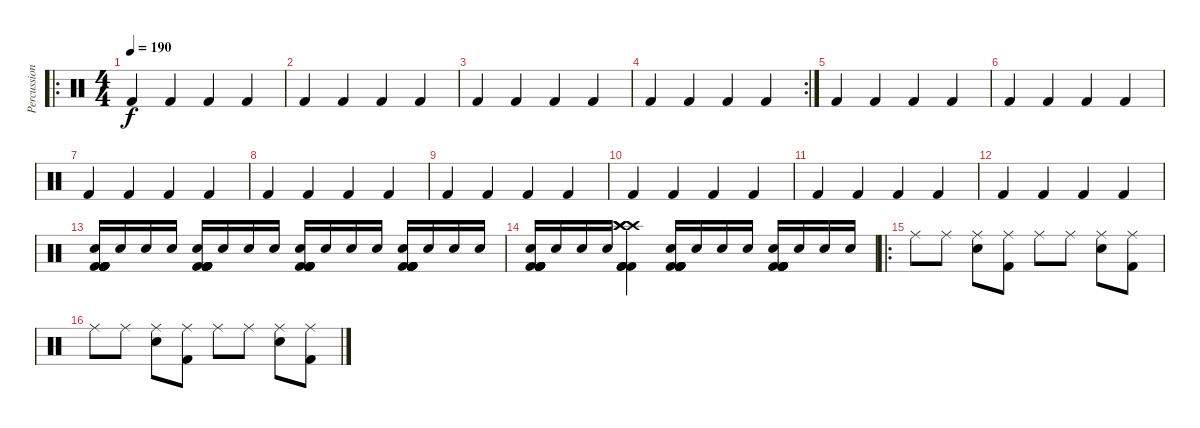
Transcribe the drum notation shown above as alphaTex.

\track ("Percussion" "Percussion") {instrument percussion}
\staff {score}
\articulation defaults
\ro
\ts (4 4)
\tempo 190
\clef neutral
\ks c "Kick (hit) 2".4{dy f} "Kick (hit) 2".4 "Kick (hit) 2".4 "Kick (hit) 2".4
|
"Kick (hit) 2".4 "Kick (hit) 2".4 "Kick (hit) 2".4 "Kick (hit) 2".4 |
"Kick (hit) 2".4 "Kick (hit) 2".4 "Kick (hit) 2".4 "Kick (hit) 2".4 |
\rc 2 "Kick (hit) 2".4 "Kick (hit) 2".4 "Kick (hit) 2".4 "Kick (hit) 2".4
|
"Kick (hit) 2".4 "Kick (hit) 2".4 "Kick (hit) 2".4 "Kick (hit) 2".4 |
"Kick (hit) 2".4 "Kick (hit) 2".4 "Kick (hit) 2".4 "Kick (hit) 2".4 |
"Kick (hit) 2".4 "Kick (hit) 2".4 "Kick (hit) 2".4 "Kick (hit) 2".4 |
"Kick (hit) 2".4 "Kick (hit) 2".4 "Kick (hit) 2".4 "Kick (hit) 2".4 |
"Kick (hit) 2".4 "Kick (hit) 2".4 "Kick (hit) 2".4 "Kick (hit) 2".4 |
"Kick (hit) 2".4 "Kick (hit) 2".4 "Kick (hit) 2".4 "Kick (hit) 2".4 |
"Kick (hit) 2".4 "Kick (hit) 2".4 "Kick (hit) 2".4 "Kick (hit) 2".4 |
"Kick (hit) 2".4 "Kick (hit) 2".4 "Kick (hit) 2".4 "Kick (hit) 2".4 |
("Snare (hit) 2" "Kick (hit) 2" "Kick (hit) 2" "Kick (hit) 2" "Kick (hit) 2" "Kick (hit) 2").16 "Snare (hit) 2".16 "Snare (hit) 2".16 "Snare (hit) 2".16 ("Snare (hit) 2" "Kick (hit) 2" "Kick (hit) 2" "Kick (hit) 2" "Kick (hit) 2" "Kick (hit) 2").16 "Snare (hit) 2".16 "Snare (hit) 2".16 "Snare (hit) 2".16 ("Snare (hit) 2" "Kick (hit) 2" "Kick (hit) 2" "Kick (hit) 2" "Kick (hit) 2" "Kick (hit) 2").16 "Snare (hit) 2".16 "Snare (hit) 2".16 "Snare (hit) 2".16 ("Snare (hit) 2" "Kick (hit) 2" "Kick (hit) 2" "Kick (hit) 2" "Kick (hit) 2" "Kick (hit) 2").16 "Snare (hit) 2".16 "Snare (hit) 2".16 "Snare (hit) 2".16 |
("Snare (hit) 2" "Kick (hit) 2" "Kick (hit) 2" "Kick (hit) 2" "Kick (hit) 2" "Kick (hit) 2").16 "Snare (hit) 2".16 "Snare (hit) 2".16 "Snare (hit) 2".16 ("Crash high (hit)" "Crash high (hit)" "Crash high (hit)" "Kick (hit) 2" "Kick (hit) 2" "Kick (hit) 2").4 ("Snare (hit) 2" "Kick (hit) 2" "Kick (hit) 2" "Kick (hit) 2" "Kick (hit) 2" "Kick (hit) 2").16 "Snare (hit) 2".16 "Snare (hit) 2".16 "Snare (hit) 2".16 ("Snare (hit) 2" "Kick (hit) 2" "Kick (hit) 2" "Kick (hit) 2" "Kick (hit) 2" "Kick (hit) 2").16 "Snare (hit) 2".16 "Snare (hit) 2".16 "Snare (hit) 2".16 |
\ro "Ride (middle)".8 "Ride (middle)".8
("Ride (middle)" "Snare (hit) 2").8 ("Ride (middle)" "Kick (hit) 2").8 "Ride (middle)".8 "Ride (middle)".8 ("Ride (middle)" "Snare (hit) 2").8 ("Ride (middle)" "Kick (hit) 2").8 |
"Ride (middle)".8 "Ride (middle)".8 ("Ride (middle)" "Snare (hit) 2").8 ("Ride (middle)" "Kick (hit) 2").8 "Ride (middle)".8 "Ride (middle)".8 ("Ride (middle)" "Snare (hit) 2").8 ("Ride (middle)" "Kick (hit) 2").8
